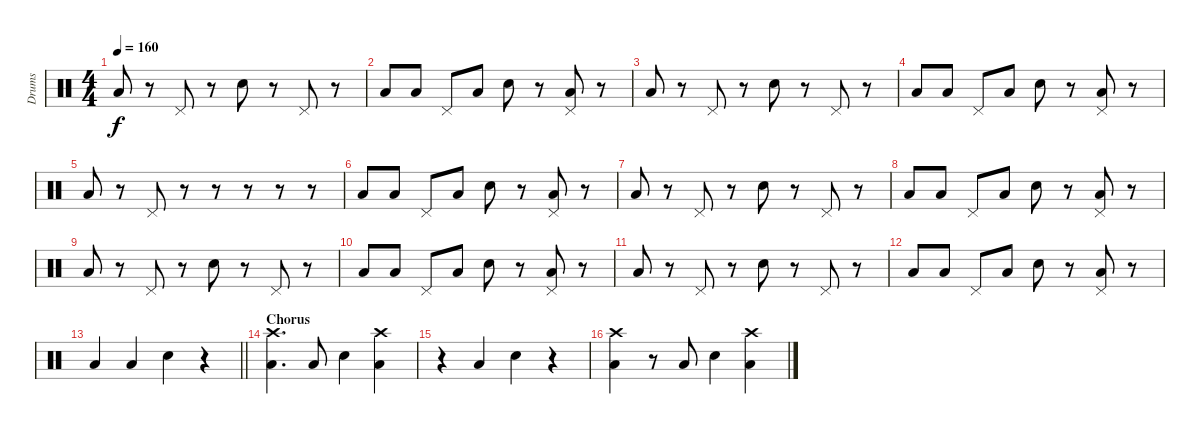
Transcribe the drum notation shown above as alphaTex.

\track ("Drums" "Drums") {instrument percussion}
\staff {score}
\articulation defaults
\ts (4 4)
\tempo 160
\clef neutral
\ks c "Low Floor Tom (hit)".8{dy f}
r.8 "Pedal Hi-Hat (hit)".8 r.8 "Snare (hit) 2".8 r.8 "Pedal Hi-Hat (hit)".8 r.8 |
"Low Floor Tom (hit)".8 "Low Floor Tom (hit)".8 "Pedal Hi-Hat (hit)".8 "Low Floor Tom (hit)".8 "Snare (hit) 2".8 r.8 ("Low Floor Tom (hit)" "Pedal Hi-Hat (hit)").8 r.8 |
"Low Floor Tom (hit)".8 r.8 "Pedal Hi-Hat (hit)".8 r.8 "Snare (hit) 2".8 r.8 "Pedal Hi-Hat (hit)".8 r.8 |
"Low Floor Tom (hit)".8 "Low Floor Tom (hit)".8 "Pedal Hi-Hat (hit)".8 "Low Floor Tom (hit)".8 "Snare (hit) 2".8 r.8 ("Low Floor Tom (hit)" "Pedal Hi-Hat (hit)").8 r.8 |
"Low Floor Tom (hit)".8 r.8 "Pedal Hi-Hat (hit)".8 r.8 r.8 r.8 r.8 r.8 |
"Low Floor Tom (hit)".8 "Low Floor Tom (hit)".8 "Pedal Hi-Hat (hit)".8 "Low Floor Tom (hit)".8 "Snare (hit) 2".8 r.8 ("Low Floor Tom (hit)" "Pedal Hi-Hat (hit)").8 r.8 |
"Low Floor Tom (hit)".8 r.8 "Pedal Hi-Hat (hit)".8 r.8 "Snare (hit) 2".8 r.8 "Pedal Hi-Hat (hit)".8 r.8 |
"Low Floor Tom (hit)".8 "Low Floor Tom (hit)".8 "Pedal Hi-Hat (hit)".8 "Low Floor Tom (hit)".8 "Snare (hit) 2".8 r.8 ("Low Floor Tom (hit)" "Pedal Hi-Hat (hit)").8 r.8 |
"Low Floor Tom (hit)".8 r.8 "Pedal Hi-Hat (hit)".8 r.8 "Snare (hit) 2".8 r.8 "Pedal Hi-Hat (hit)".8 r.8 |
"Low Floor Tom (hit)".8 "Low Floor Tom (hit)".8 "Pedal Hi-Hat (hit)".8 "Low Floor Tom (hit)".8 "Snare (hit) 2".8 r.8 ("Low Floor Tom (hit)" "Pedal Hi-Hat (hit)").8 r.8 |
"Low Floor Tom (hit)".8 r.8 "Pedal Hi-Hat (hit)".8 r.8 "Snare (hit) 2".8 r.8 "Pedal Hi-Hat (hit)".8 r.8 |
"Low Floor Tom (hit)".8 "Low Floor Tom (hit)".8 "Pedal Hi-Hat (hit)".8 "Low Floor Tom (hit)".8 "Snare (hit) 2".8 r.8 ("Low Floor Tom (hit)" "Pedal Hi-Hat (hit)").8 r.8 |
\barLineRight lightlight "Low Floor Tom (hit)".4 "Low Floor Tom (hit)".4 "Snare (hit) 2".4
r.4 |
\section ("" "Chorus")
("Low Floor Tom (hit)" "Crash high (hit)").4{d} "Low Floor Tom (hit)".8 "Snare (hit) 2".4 ("Low Floor Tom (hit)" "Crash high (hit)").4 |
r.4 "Low Floor Tom (hit)".4 "Snare (hit) 2".4 r.4 |
("Low Floor Tom (hit)" "Crash high (hit)").4 r.8 "Low Floor Tom (hit)".8 "Snare (hit) 2".4 ("Low Floor Tom (hit)" "Crash high (hit)").4
